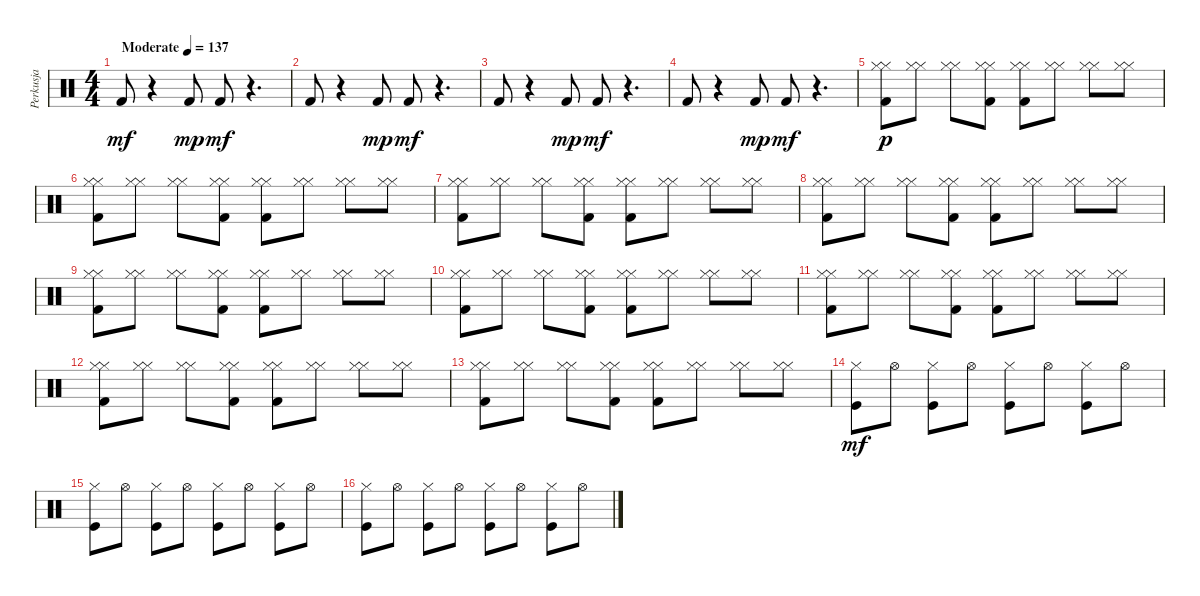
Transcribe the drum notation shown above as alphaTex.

\track ("Perkusja" "Perkusja") {instrument percussion}
\staff {score}
\articulation defaults
\ts (4 4)
\tempo (137 "Moderate")
\clef neutral
\ks c "Kick (hit) 2".8{dy mf}
r.4 "Kick (hit) 2".8{dy mp} "Kick (hit) 2".8{dy mf} r.4{d} |
"Kick (hit) 2".8 r.4 "Kick (hit) 2".8{dy mp} "Kick (hit) 2".8{dy mf} r.4{d} |
"Kick (hit) 2".8 r.4 "Kick (hit) 2".8{dy mp} "Kick (hit) 2".8{dy mf} r.4{d} |
"Kick (hit) 2".8 r.4 "Kick (hit) 2".8{dy mp} "Kick (hit) 2".8{dy mf} r.4{d} |
("Kick (hit) 2" "Hi-Hat (closed)" "Hi-Hat (closed)").8{dy p} ("Hi-Hat (closed)" "Hi-Hat (closed)").8 ("Hi-Hat (closed)" "Hi-Hat (closed)").8 ("Kick (hit) 2" "Hi-Hat (closed)" "Hi-Hat (closed)").8 ("Kick (hit) 2" "Hi-Hat (closed)" "Hi-Hat (closed)").8 ("Hi-Hat (closed)" "Hi-Hat (closed)").8 ("Hi-Hat (closed)" "Hi-Hat (closed)").8 ("Hi-Hat (closed)" "Hi-Hat (closed)").8 |
("Kick (hit) 2" "Hi-Hat (closed)" "Hi-Hat (closed)").8 ("Hi-Hat (closed)" "Hi-Hat (closed)").8 ("Hi-Hat (closed)" "Hi-Hat (closed)").8 ("Kick (hit) 2" "Hi-Hat (closed)" "Hi-Hat (closed)").8 ("Kick (hit) 2" "Hi-Hat (closed)" "Hi-Hat (closed)").8 ("Hi-Hat (closed)" "Hi-Hat (closed)").8 ("Hi-Hat (closed)" "Hi-Hat (closed)").8 ("Hi-Hat (closed)" "Hi-Hat (closed)").8 |
("Kick (hit) 2" "Hi-Hat (closed)" "Hi-Hat (closed)").8 ("Hi-Hat (closed)" "Hi-Hat (closed)").8 ("Hi-Hat (closed)" "Hi-Hat (closed)").8 ("Kick (hit) 2" "Hi-Hat (closed)" "Hi-Hat (closed)").8 ("Kick (hit) 2" "Hi-Hat (closed)" "Hi-Hat (closed)").8 ("Hi-Hat (closed)" "Hi-Hat (closed)").8 ("Hi-Hat (closed)" "Hi-Hat (closed)").8 ("Hi-Hat (closed)" "Hi-Hat (closed)").8 |
("Kick (hit) 2" "Hi-Hat (closed)" "Hi-Hat (closed)").8 ("Hi-Hat (closed)" "Hi-Hat (closed)").8 ("Hi-Hat (closed)" "Hi-Hat (closed)").8 ("Kick (hit) 2" "Hi-Hat (closed)" "Hi-Hat (closed)").8 ("Kick (hit) 2" "Hi-Hat (closed)" "Hi-Hat (closed)").8 ("Hi-Hat (closed)" "Hi-Hat (closed)").8 ("Hi-Hat (closed)" "Hi-Hat (closed)").8 ("Hi-Hat (closed)" "Hi-Hat (closed)").8 |
("Kick (hit) 2" "Hi-Hat (closed)" "Hi-Hat (closed)").8 ("Hi-Hat (closed)" "Hi-Hat (closed)").8 ("Hi-Hat (closed)" "Hi-Hat (closed)").8 ("Kick (hit) 2" "Hi-Hat (closed)" "Hi-Hat (closed)").8 ("Kick (hit) 2" "Hi-Hat (closed)" "Hi-Hat (closed)").8 ("Hi-Hat (closed)" "Hi-Hat (closed)").8 ("Hi-Hat (closed)" "Hi-Hat (closed)").8 ("Hi-Hat (closed)" "Hi-Hat (closed)").8 |
("Kick (hit) 2" "Hi-Hat (closed)" "Hi-Hat (closed)").8 ("Hi-Hat (closed)" "Hi-Hat (closed)").8 ("Hi-Hat (closed)" "Hi-Hat (closed)").8 ("Kick (hit) 2" "Hi-Hat (closed)" "Hi-Hat (closed)").8 ("Kick (hit) 2" "Hi-Hat (closed)" "Hi-Hat (closed)").8 ("Hi-Hat (closed)" "Hi-Hat (closed)").8 ("Hi-Hat (closed)" "Hi-Hat (closed)").8 ("Hi-Hat (closed)" "Hi-Hat (closed)").8 |
("Kick (hit) 2" "Hi-Hat (closed)" "Hi-Hat (closed)").8 ("Hi-Hat (closed)" "Hi-Hat (closed)").8 ("Hi-Hat (closed)" "Hi-Hat (closed)").8 ("Kick (hit) 2" "Hi-Hat (closed)" "Hi-Hat (closed)").8 ("Kick (hit) 2" "Hi-Hat (closed)" "Hi-Hat (closed)").8 ("Hi-Hat (closed)" "Hi-Hat (closed)").8 ("Hi-Hat (closed)" "Hi-Hat (closed)").8 ("Hi-Hat (closed)" "Hi-Hat (closed)").8 |
("Kick (hit) 2" "Hi-Hat (closed)" "Hi-Hat (closed)").8 ("Hi-Hat (closed)" "Hi-Hat (closed)").8 ("Hi-Hat (closed)" "Hi-Hat (closed)").8 ("Kick (hit) 2" "Hi-Hat (closed)" "Hi-Hat (closed)").8 ("Kick (hit) 2" "Hi-Hat (closed)" "Hi-Hat (closed)").8 ("Hi-Hat (closed)" "Hi-Hat (closed)").8 ("Hi-Hat (closed)" "Hi-Hat (closed)").8 ("Hi-Hat (closed)" "Hi-Hat (closed)").8 |
("Kick (hit) 2" "Hi-Hat (closed)" "Hi-Hat (closed)").8 ("Hi-Hat (closed)" "Hi-Hat (closed)").8 ("Hi-Hat (closed)" "Hi-Hat (closed)").8 ("Kick (hit) 2" "Hi-Hat (closed)" "Hi-Hat (closed)").8 ("Kick (hit) 2" "Hi-Hat (closed)" "Hi-Hat (closed)").8 ("Hi-Hat (closed)" "Hi-Hat (closed)").8 ("Hi-Hat (closed)" "Hi-Hat (closed)").8 ("Hi-Hat (closed)" "Hi-Hat (closed)").8 |
("Kick (hit)" "Hi-Hat (closed)").8{dy mf} "Hi-Hat (open)".8 ("Kick (hit)" "Hi-Hat (closed)").8 "Hi-Hat (open)".8 ("Kick (hit)" "Hi-Hat (closed)").8 "Hi-Hat (open)".8 ("Kick (hit)" "Hi-Hat (closed)").8 "Hi-Hat (open)".8 |
("Kick (hit)" "Hi-Hat (closed)").8 "Hi-Hat (open)".8 ("Kick (hit)" "Hi-Hat (closed)").8 "Hi-Hat (open)".8 ("Kick (hit)" "Hi-Hat (closed)").8 "Hi-Hat (open)".8 ("Kick (hit)" "Hi-Hat (closed)").8 "Hi-Hat (open)".8 |
("Kick (hit)" "Hi-Hat (closed)").8 "Hi-Hat (open)".8 ("Kick (hit)" "Hi-Hat (closed)").8 "Hi-Hat (open)".8 ("Kick (hit)" "Hi-Hat (closed)").8 "Hi-Hat (open)".8 ("Kick (hit)" "Hi-Hat (closed)").8 "Hi-Hat (open)".8
